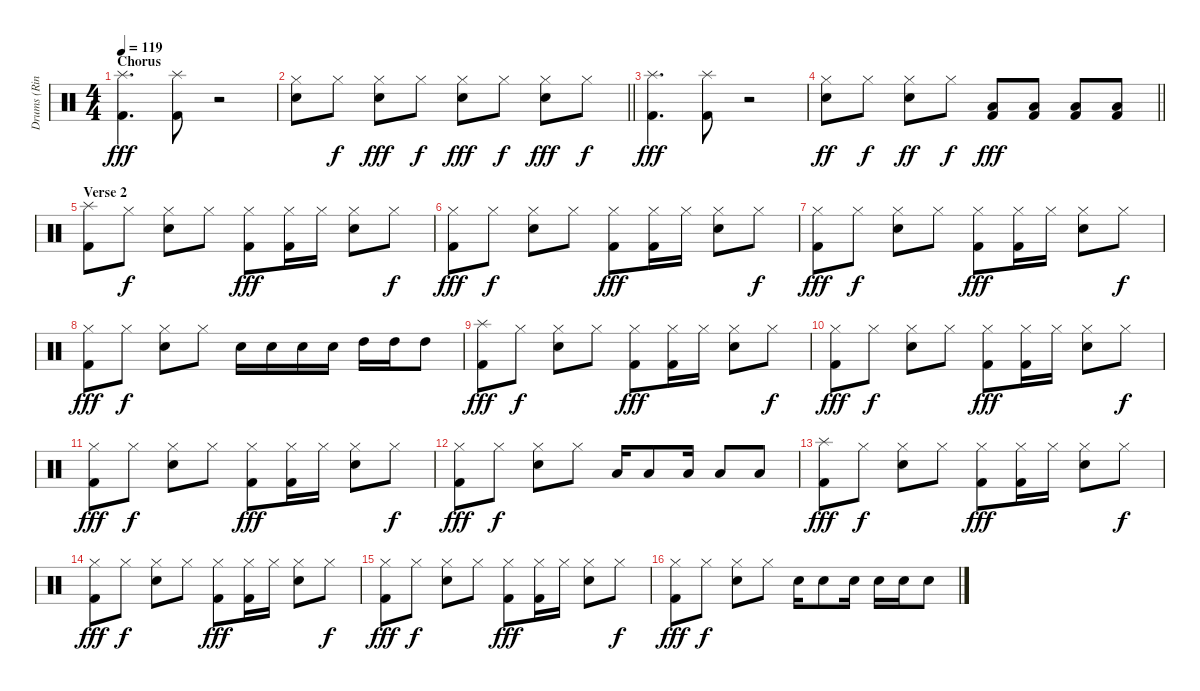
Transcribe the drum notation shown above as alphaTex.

\track ("Drums (Ringo Starr)" "Drums (Rin") {instrument percussion}
\staff {score}
\articulation defaults
\ts (4 4)
\section ("" "Chorus")
\tempo 119
\clef neutral
\ks c
("Splash (hit)" "Kick (hit) 2").4{d dy fff} ("Splash (hit)" "Kick (hit) 2").8 r.2 |
\barLineRight lightlight
("Hi-Hat (closed)" "Snare (hit) 2").8 "Hi-Hat (closed)".8{dy f} ("Hi-Hat (closed)" "Snare (hit) 2").8{dy fff} "Hi-Hat (closed)".8{dy f} ("Hi-Hat (closed)" "Snare (hit) 2").8{dy fff} "Hi-Hat (closed)".8{dy f} ("Hi-Hat (closed)" "Snare (hit) 2").8{dy fff} "Hi-Hat (closed)".8{dy f} |
("Splash (hit)" "Kick (hit) 2").4{d dy fff} ("Splash (hit)" "Kick (hit) 2").8 r.2 |
\barLineRight lightlight
("Hi-Hat (closed)" "Snare (hit) 2").8{dy ff} "Hi-Hat (closed)".8{dy f} ("Hi-Hat (closed)" "Snare (hit) 2").8{dy ff} "Hi-Hat (closed)".8{dy f} ("Low Floor Tom (hit)" "Kick (hit) 2").8{dy fff} ("Low Floor Tom (hit)" "Kick (hit) 2").8 ("Low Floor Tom (hit)" "Kick (hit) 2").8 ("Low Floor Tom (hit)" "Kick (hit) 2").8 |
\section ("" "Verse 2")
("Splash (hit)" "Kick (hit) 2").8 "Hi-Hat (closed)".8{dy f} ("Hi-Hat (closed)" "Snare (hit) 2").8 "Hi-Hat (closed)".8 ("Hi-Hat (closed)" "Kick (hit) 2").8{dy fff} ("Hi-Hat (closed)" "Kick (hit) 2").16 "Hi-Hat (closed)".16 ("Hi-Hat (closed)" "Snare (hit) 2").8 "Hi-Hat (closed)".8{dy f} |
("Hi-Hat (closed)" "Kick (hit) 2").8{dy fff} "Hi-Hat (closed)".8{dy f} ("Hi-Hat (closed)" "Snare (hit) 2").8 "Hi-Hat (closed)".8 ("Hi-Hat (closed)" "Kick (hit) 2").8{dy fff} ("Hi-Hat (closed)" "Kick (hit) 2").16 "Hi-Hat (closed)".16 ("Hi-Hat (closed)" "Snare (hit) 2").8 "Hi-Hat (closed)".8{dy f} |
("Hi-Hat (closed)" "Kick (hit) 2").8{dy fff} "Hi-Hat (closed)".8{dy f} ("Hi-Hat (closed)" "Snare (hit) 2").8 "Hi-Hat (closed)".8 ("Hi-Hat (closed)" "Kick (hit) 2").8{dy fff} ("Hi-Hat (closed)" "Kick (hit) 2").16 "Hi-Hat (closed)".16 ("Hi-Hat (closed)" "Snare (hit) 2").8 "Hi-Hat (closed)".8{dy f} |
("Hi-Hat (closed)" "Kick (hit) 2").8{dy fff} "Hi-Hat (closed)".8{dy f} ("Hi-Hat (closed)" "Snare (hit) 2").8 "Hi-Hat (closed)".8 "Snare (hit) 2".16 "Snare (hit) 2".16 "Snare (hit) 2".16 "Snare (hit) 2".16 "High Tom (hit)".16 "High Tom (hit)".16 "High Tom (hit)".8 |
("Splash (hit)" "Kick (hit) 2").8{dy fff} "Hi-Hat (closed)".8{dy f} ("Hi-Hat (closed)" "Snare (hit) 2").8 "Hi-Hat (closed)".8 ("Hi-Hat (closed)" "Kick (hit) 2").8{dy fff} ("Hi-Hat (closed)" "Kick (hit) 2").16 "Hi-Hat (closed)".16 ("Hi-Hat (closed)" "Snare (hit) 2").8 "Hi-Hat (closed)".8{dy f} |
("Hi-Hat (closed)" "Kick (hit) 2").8{dy fff} "Hi-Hat (closed)".8{dy f} ("Hi-Hat (closed)" "Snare (hit) 2").8 "Hi-Hat (closed)".8 ("Hi-Hat (closed)" "Kick (hit) 2").8{dy fff} ("Hi-Hat (closed)" "Kick (hit) 2").16 "Hi-Hat (closed)".16 ("Hi-Hat (closed)" "Snare (hit) 2").8 "Hi-Hat (closed)".8{dy f} |
("Hi-Hat (closed)" "Kick (hit) 2").8{dy fff} "Hi-Hat (closed)".8{dy f} ("Hi-Hat (closed)" "Snare (hit) 2").8 "Hi-Hat (closed)".8 ("Hi-Hat (closed)" "Kick (hit) 2").8{dy fff} ("Hi-Hat (closed)" "Kick (hit) 2").16 "Hi-Hat (closed)".16 ("Hi-Hat (closed)" "Snare (hit) 2").8 "Hi-Hat (closed)".8{dy f} |
("Hi-Hat (closed)" "Kick (hit) 2").8{dy fff} "Hi-Hat (closed)".8{dy f} ("Hi-Hat (closed)" "Snare (hit) 2").8 "Hi-Hat (closed)".8 "Low Floor Tom (hit)".16 "Low Floor Tom (hit)".8 "Low Floor Tom (hit)".16 "Low Floor Tom (hit)".8 "Low Floor Tom (hit)".8 |
("Splash (hit)" "Kick (hit) 2").8{dy fff} "Hi-Hat (closed)".8{dy f} ("Hi-Hat (closed)" "Snare (hit) 2").8 "Hi-Hat (closed)".8 ("Hi-Hat (closed)" "Kick (hit) 2").8{dy fff} ("Hi-Hat (closed)" "Kick (hit) 2").16 "Hi-Hat (closed)".16 ("Hi-Hat (closed)" "Snare (hit) 2").8 "Hi-Hat (closed)".8{dy f} |
("Hi-Hat (closed)" "Kick (hit) 2").8{dy fff} "Hi-Hat (closed)".8{dy f} ("Hi-Hat (closed)" "Snare (hit) 2").8 "Hi-Hat (closed)".8 ("Hi-Hat (closed)" "Kick (hit) 2").8{dy fff} ("Hi-Hat (closed)" "Kick (hit) 2").16 "Hi-Hat (closed)".16 ("Hi-Hat (closed)" "Snare (hit) 2").8 "Hi-Hat (closed)".8{dy f} |
("Hi-Hat (closed)" "Kick (hit) 2").8{dy fff} "Hi-Hat (closed)".8{dy f} ("Hi-Hat (closed)" "Snare (hit) 2").8 "Hi-Hat (closed)".8 ("Hi-Hat (closed)" "Kick (hit) 2").8{dy fff} ("Hi-Hat (closed)" "Kick (hit) 2").16 "Hi-Hat (closed)".16 ("Hi-Hat (closed)" "Snare (hit) 2").8 "Hi-Hat (closed)".8{dy f} |
("Hi-Hat (closed)" "Kick (hit) 2").8{dy fff} "Hi-Hat (closed)".8{dy f} ("Hi-Hat (closed)" "Snare (hit) 2").8 "Hi-Hat (closed)".8 "Snare (hit) 2".16 "Snare (hit) 2".8 "Snare (hit) 2".16 "Snare (hit) 2".16 "Snare (hit) 2".16 "Snare (hit) 2".8
